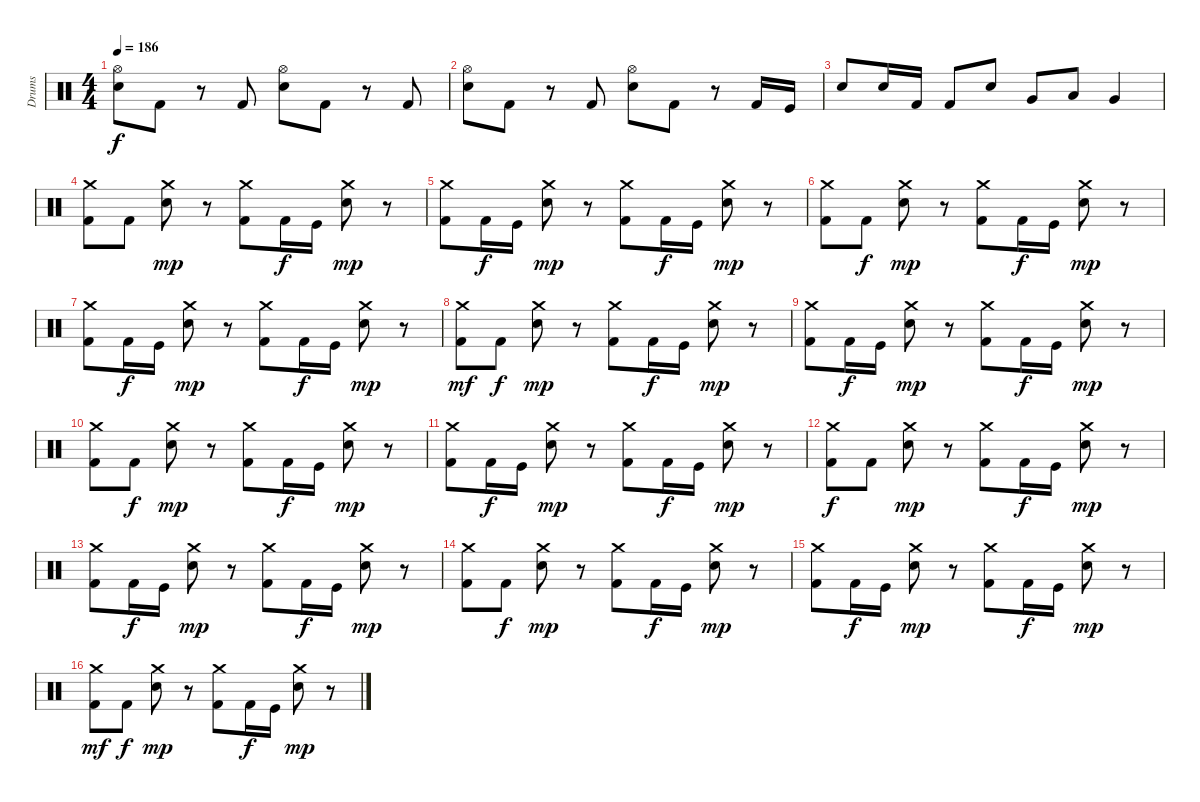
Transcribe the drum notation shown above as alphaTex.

\track ("Drums" "Drums") {instrument percussion}
\staff {score}
\articulation defaults
\ts (4 4)
\tempo 186
\clef neutral
\ks c
("Hi-Hat (open)" "Snare (hit) 2").8{dy f} "Kick (hit) 2".8 r.8 "Kick (hit) 2".8 ("Hi-Hat (open)" "Snare (hit) 2").8 "Kick (hit) 2".8 r.8 "Kick (hit) 2".8 |
("Hi-Hat (open)" "Snare (hit) 2").8 "Kick (hit) 2".8 r.8 "Kick (hit) 2".8 ("Hi-Hat (open)" "Snare (hit) 2").8 "Kick (hit) 2".8 r.8 "Kick (hit) 2".16 "Kick (hit)".16 |
"Snare (hit) 2".8 "Snare (hit) 2".16 "Kick (hit) 2".16 "Kick (hit) 2".8 "Snare (hit) 2".8 "Very Low Tom (hit)".8 "Low Floor Tom (hit)".8 "Very Low Tom (hit)".4 |
("Crash medium (hit)" "Kick (hit) 2").8 "Kick (hit) 2".8 ("Crash medium (hit)" "Snare (hit) 2").8{dy mp} r.8 ("Crash medium (hit)" "Kick (hit) 2").8 "Kick (hit) 2".16{dy f} "Kick (hit)".16 ("Crash medium (hit)" "Snare (hit) 2").8{dy mp} r.8 |
("Crash medium (hit)" "Kick (hit) 2").8 "Kick (hit) 2".16{dy f} "Kick (hit)".16 ("Crash medium (hit)" "Snare (hit) 2").8{dy mp} r.8 ("Crash medium (hit)" "Kick (hit) 2").8 "Kick (hit) 2".16{dy f} "Kick (hit)".16 ("Crash medium (hit)" "Snare (hit) 2").8{dy mp} r.8 |
("Crash medium (hit)" "Kick (hit) 2").8 "Kick (hit) 2".8{dy f} ("Crash medium (hit)" "Snare (hit) 2").8{dy mp} r.8 ("Crash medium (hit)" "Kick (hit) 2").8 "Kick (hit) 2".16{dy f} "Kick (hit)".16 ("Crash medium (hit)" "Snare (hit) 2").8{dy mp} r.8 |
("Crash medium (hit)" "Kick (hit) 2").8 "Kick (hit) 2".16{dy f} "Kick (hit)".16 ("Crash medium (hit)" "Snare (hit) 2").8{dy mp} r.8 ("Crash medium (hit)" "Kick (hit) 2").8 "Kick (hit) 2".16{dy f} "Kick (hit)".16 ("Crash medium (hit)" "Snare (hit) 2").8{dy mp} r.8 |
("Crash medium (hit)" "Kick (hit) 2").8{dy mf} "Kick (hit) 2".8{dy f} ("Crash medium (hit)" "Snare (hit) 2").8{dy mp} r.8 ("Crash medium (hit)" "Kick (hit) 2").8 "Kick (hit) 2".16{dy f} "Kick (hit)".16 ("Crash medium (hit)" "Snare (hit) 2").8{dy mp} r.8 |
("Crash medium (hit)" "Kick (hit) 2").8 "Kick (hit) 2".16{dy f} "Kick (hit)".16 ("Crash medium (hit)" "Snare (hit) 2").8{dy mp} r.8 ("Crash medium (hit)" "Kick (hit) 2").8 "Kick (hit) 2".16{dy f} "Kick (hit)".16 ("Crash medium (hit)" "Snare (hit) 2").8{dy mp} r.8 |
("Crash medium (hit)" "Kick (hit) 2").8 "Kick (hit) 2".8{dy f} ("Crash medium (hit)" "Snare (hit) 2").8{dy mp} r.8 ("Crash medium (hit)" "Kick (hit) 2").8 "Kick (hit) 2".16{dy f} "Kick (hit)".16 ("Crash medium (hit)" "Snare (hit) 2").8{dy mp} r.8 |
("Crash medium (hit)" "Kick (hit) 2").8 "Kick (hit) 2".16{dy f} "Kick (hit)".16 ("Crash medium (hit)" "Snare (hit) 2").8{dy mp} r.8 ("Crash medium (hit)" "Kick (hit) 2").8 "Kick (hit) 2".16{dy f} "Kick (hit)".16 ("Crash medium (hit)" "Snare (hit) 2").8{dy mp} r.8 |
("Crash medium (hit)" "Kick (hit) 2").8{dy f} "Kick (hit) 2".8 ("Crash medium (hit)" "Snare (hit) 2").8{dy mp} r.8 ("Crash medium (hit)" "Kick (hit) 2").8 "Kick (hit) 2".16{dy f} "Kick (hit)".16 ("Crash medium (hit)" "Snare (hit) 2").8{dy mp} r.8 |
("Crash medium (hit)" "Kick (hit) 2").8 "Kick (hit) 2".16{dy f} "Kick (hit)".16 ("Crash medium (hit)" "Snare (hit) 2").8{dy mp} r.8 ("Crash medium (hit)" "Kick (hit) 2").8 "Kick (hit) 2".16{dy f} "Kick (hit)".16 ("Crash medium (hit)" "Snare (hit) 2").8{dy mp} r.8 |
("Crash medium (hit)" "Kick (hit) 2").8 "Kick (hit) 2".8{dy f} ("Crash medium (hit)" "Snare (hit) 2").8{dy mp} r.8 ("Crash medium (hit)" "Kick (hit) 2").8 "Kick (hit) 2".16{dy f} "Kick (hit)".16 ("Crash medium (hit)" "Snare (hit) 2").8{dy mp} r.8 |
("Crash medium (hit)" "Kick (hit) 2").8 "Kick (hit) 2".16{dy f} "Kick (hit)".16 ("Crash medium (hit)" "Snare (hit) 2").8{dy mp} r.8 ("Crash medium (hit)" "Kick (hit) 2").8 "Kick (hit) 2".16{dy f} "Kick (hit)".16 ("Crash medium (hit)" "Snare (hit) 2").8{dy mp} r.8 |
("Crash medium (hit)" "Kick (hit) 2").8{dy mf} "Kick (hit) 2".8{dy f} ("Crash medium (hit)" "Snare (hit) 2").8{dy mp} r.8 ("Crash medium (hit)" "Kick (hit) 2").8 "Kick (hit) 2".16{dy f} "Kick (hit)".16 ("Crash medium (hit)" "Snare (hit) 2").8{dy mp} r.8
